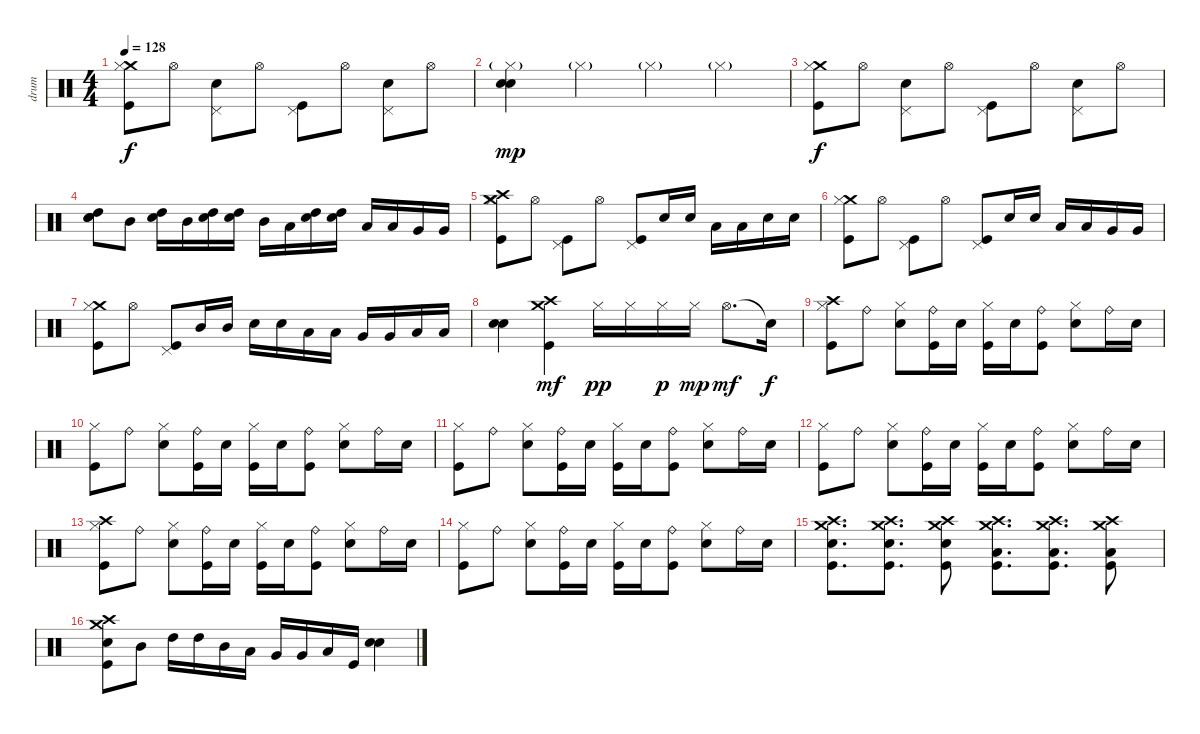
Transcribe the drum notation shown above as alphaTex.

\track ("drum" "drum") {instrument percussion}
\staff {score}
\articulation defaults
\ts (4 4)
\tempo 128
\clef neutral
\ks c
("Crash medium (hit)" "Hi-Hat (closed)" "Kick (hit)").8{dy f} "Hi-Hat (open)".8 ("Pedal Hi-Hat (hit)" "Snare (hit) 2").8 "Hi-Hat (open)".8 ("Pedal Hi-Hat (hit)" "Kick (hit)").8 "Hi-Hat (open)".8 ("Pedal Hi-Hat (hit)" "Snare (hit) 2").8 "Hi-Hat (open)".8 |
("Hi-Hat (closed)"{g} "Electric Snare (hit)" "Snare (hit) 2").4{dy mp} "Hi-Hat (closed)"{g}.4 "Hi-Hat (closed)"{g}.4 "Hi-Hat (closed)"{g}.4 |
("Crash medium (hit)" "Hi-Hat (closed)" "Kick (hit)").8{dy f} "Hi-Hat (open)".8 ("Pedal Hi-Hat (hit)" "Snare (hit) 2").8 "Hi-Hat (open)".8 ("Pedal Hi-Hat (hit)" "Kick (hit)").8 "Hi-Hat (open)".8 ("Pedal Hi-Hat (hit)" "Snare (hit) 2").8 "Hi-Hat (open)".8 |
("High Tom (hit)" "Electric Snare (hit)" "Snare (hit) 2").8 "Mid Tom (hit)".8 ("High Tom (hit)" "Snare (hit) 2").16 "Mid Tom (hit)".16 ("High Tom (hit)" "Snare (hit) 2").16 ("High Tom (hit)" "Snare (hit) 2").16 "Mid Tom (hit)".16 "Low Tom (hit)".16 ("High Tom (hit)" "Snare (hit) 2").16 ("High Tom (hit)" "Snare (hit) 2").16 "Low Tom (hit)".16 "Low Tom (hit)".16 "Very Low Tom (hit)".16 "Very Low Tom (hit)".16 |
("Crash medium (hit)" "Hi-Hat (closed)" "Crash high (hit)" "Kick (hit)").8 "Hi-Hat (open)".8 ("Pedal Hi-Hat (hit)" "Kick (hit)").8 "Hi-Hat (open)".8 ("Pedal Hi-Hat (hit)" "Kick (hit)").8 "Snare (hit) 2".16 "Snare (hit) 2".16 "Low Tom (hit)".16 "Low Tom (hit)".16 "Snare (hit) 2".16 "Snare (hit) 2".16 |
("Crash medium (hit)" "Hi-Hat (closed)" "Kick (hit)").8 "Hi-Hat (open)".8 ("Pedal Hi-Hat (hit)" "Kick (hit)").8 "Hi-Hat (open)".8 ("Pedal Hi-Hat (hit)" "Kick (hit)").8 "Snare (hit) 2".16 "Snare (hit) 2".16 "Low Tom (hit)".16 "Low Tom (hit)".16 "Very Low Tom (hit)".16 "Very Low Tom (hit)".16 |
("Crash medium (hit)" "Hi-Hat (closed)" "Kick (hit)").8 "Hi-Hat (open)".8 ("Pedal Hi-Hat (hit)" "Kick (hit)").8 "Mid Tom (hit)".16 "Mid Tom (hit)".16 "Snare (hit) 2".16 "Snare (hit) 2".16 "Low Tom (hit)".16 "Low Tom (hit)".16 "Very Low Tom (hit)".16 "Very Low Tom (hit)".16 "Low Floor Tom (hit)".16 "Low Floor Tom (hit)".16 |
("Snare (hit) 2" "Snare (hit) 2").4{bd 240} ("Crash high (hit)" "Crash medium (hit)" "Kick (hit)").4{dy mf} "Hi-Hat (closed)".16{dy pp} "Hi-Hat (closed)".16 "Hi-Hat (closed)".16{dy p} "Hi-Hat (closed)".16{dy mp} "Hi-Hat (open)".8{d dy mf} "Snare (hit)"{t}.16{dy f} |
("Crash high (hit)" "Hi-Hat (closed)" "Kick (hit)").8 "Ride (bell)".8 ("Hi-Hat (closed)" "Snare (hit) 2").8 ("Ride (bell)" "Kick (hit)").16 "Snare (hit) 2".16 ("Hi-Hat (closed)" "Kick (hit)").16 "Snare (hit) 2".16 ("Ride (bell)" "Kick (hit)").8 ("Hi-Hat (closed)" "Snare (hit) 2").8 "Ride (bell)".16 "Snare (hit) 2".16 |
("Hi-Hat (closed)" "Kick (hit)").8 "Ride (bell)".8 ("Hi-Hat (closed)" "Snare (hit) 2").8 ("Ride (bell)" "Kick (hit)").16 "Snare (hit) 2".16 ("Hi-Hat (closed)" "Kick (hit)").16 "Snare (hit) 2".16 ("Ride (bell)" "Kick (hit)").8 ("Hi-Hat (closed)" "Snare (hit) 2").8 "Ride (bell)".16 "Snare (hit) 2".16 |
("Hi-Hat (closed)" "Kick (hit)").8 "Ride (bell)".8 ("Hi-Hat (closed)" "Snare (hit) 2").8 ("Ride (bell)" "Kick (hit)").16 "Snare (hit) 2".16 ("Hi-Hat (closed)" "Kick (hit)").16 "Snare (hit) 2".16 ("Ride (bell)" "Kick (hit)").8 ("Hi-Hat (closed)" "Snare (hit) 2").8 "Ride (bell)".16 "Snare (hit) 2".16 |
("Hi-Hat (closed)" "Kick (hit)").8 "Ride (bell)".8 ("Hi-Hat (closed)" "Snare (hit) 2").8 ("Ride (bell)" "Kick (hit)").16 "Snare (hit) 2".16 ("Hi-Hat (closed)" "Kick (hit)").16 "Snare (hit) 2".16 ("Ride (bell)" "Kick (hit)").8 ("Hi-Hat (closed)" "Snare (hit) 2").8 "Ride (bell)".16 "Snare (hit) 2".16 |
("Crash high (hit)" "Hi-Hat (closed)" "Kick (hit)").8 "Ride (bell)".8 ("Hi-Hat (closed)" "Snare (hit) 2").8 ("Ride (bell)" "Kick (hit)").16 "Snare (hit) 2".16 ("Hi-Hat (closed)" "Kick (hit)").16 "Snare (hit) 2".16 ("Ride (bell)" "Kick (hit)").8 ("Hi-Hat (closed)" "Snare (hit) 2").8 "Ride (bell)".16 "Snare (hit) 2".16 |
("Hi-Hat (closed)" "Kick (hit)").8 "Ride (bell)".8 ("Hi-Hat (closed)" "Snare (hit) 2").8 ("Ride (bell)" "Kick (hit)").16 "Snare (hit) 2".16 ("Hi-Hat (closed)" "Kick (hit)").16 "Snare (hit) 2".16 ("Ride (bell)" "Kick (hit)").8 ("Hi-Hat (closed)" "Snare (hit) 2").8 "Ride (bell)".16 "Snare (hit) 2".16 |
("Crash high (hit)" "Crash medium (hit)" "Snare (hit) 2" "Kick (hit)").8{d} ("Crash high (hit)" "Crash medium (hit)" "Snare (hit) 2" "Kick (hit)").8{d} ("Crash high (hit)" "Crash medium (hit)" "Snare (hit) 2" "Kick (hit)").8 ("Crash high (hit)" "Crash medium (hit)" "Low Floor Tom (hit)" "Kick (hit)").8{d} ("Crash high (hit)" "Crash medium (hit)" "Low Floor Tom (hit)" "Kick (hit)").8{d} ("Crash high (hit)" "Crash medium (hit)" "Low Floor Tom (hit)" "Kick (hit)").8 |
("Crash high (hit)" "Crash medium (hit)" "Snare (hit) 2" "Kick (hit)").8 "Mid Tom (hit)".8 "High Tom (hit)".16 "High Tom (hit)".16 "Mid Tom (hit)".16 "Low Tom (hit)".16 "Very Low Tom (hit)".16 "Very Low Tom (hit)".16 "Low Floor Tom (hit)".16 "Kick (hit)".16 ("Snare (hit) 2" "Snare (hit) 2").4{bd 120}
